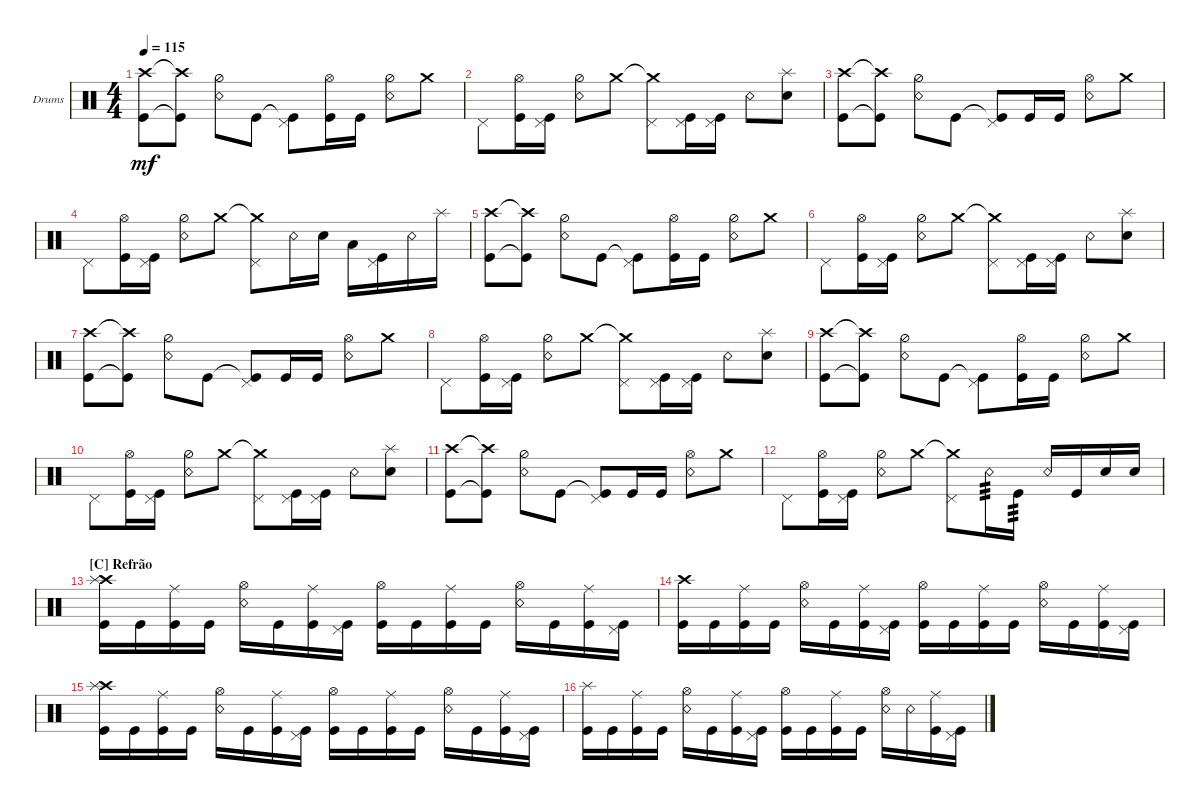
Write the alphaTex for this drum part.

\defaultSystemsLayout 4
\bracketExtendMode groupsimilarinstruments
\firstSystemTrackNameOrientation horizontal
\otherSystemsTrackNameOrientation horizontal
\track ("Drum" "Drums") {multiBarRest instrument percussion}
\staff {score}
\articulation defaults
\ts (4 4)
\tempo 115
\clef neutral
\ks c
("Kick (hit)" "Crash high (hit)").8{dy mf} ("Kick (hit)"{t} "Crash high (hit)"{t}).8 ("Snare (rim shot)" "Hi-Hat (half)").8 "Kick (hit)".8 ("Kick (hit)"{t} "Pedal Hi-Hat (hit)").8 ("Kick (hit)" "Hi-Hat (open)").16 "Kick (hit)".16 ("Snare (rim shot)" "Hi-Hat (half)").8 "Crash medium (hit)".8 |
"Pedal Hi-Hat (hit)".8 ("Kick (hit)" "Hi-Hat (open)").16 ("Kick (hit)" "Pedal Hi-Hat (hit)").16 ("Snare (rim shot)" "Hi-Hat (half)").8 "Crash medium (hit)".8 ("Crash medium (hit)"{t} "Pedal Hi-Hat (hit)").8 ("Kick (hit)" "Pedal Hi-Hat (hit)").16 ("Kick (hit)" "Pedal Hi-Hat (hit)").16 "Snare (rim shot)".8 ("Snare (hit) 2" "Splash (hit)").8 |
("Kick (hit)" "Crash high (hit)").8 ("Kick (hit)"{t} "Crash high (hit)"{t}).8 ("Snare (rim shot)" "Hi-Hat (half)").8 "Kick (hit)".8 ("Kick (hit)"{t} "Pedal Hi-Hat (hit)").8 "Kick (hit)".16 "Kick (hit)".16 ("Snare (rim shot)" "Hi-Hat (open)").8 "Crash medium (hit)".8 |
"Pedal Hi-Hat (hit)".8 ("Kick (hit)" "Hi-Hat (open)").16 ("Kick (hit)" "Pedal Hi-Hat (hit)").16 ("Snare (rim shot)" "Hi-Hat (half)").8 "Crash medium (hit)".8 ("Crash medium (hit)"{t} "Pedal Hi-Hat (hit)").8 "Snare (rim shot)".16 "Snare (hit) 2".16 "Low Tom (hit)".16 ("Kick (hit)" "Pedal Hi-Hat (hit)").16 "Snare (rim shot)".16 "Splash (hit)".16 |
("Kick (hit)" "Crash high (hit)").8 ("Kick (hit)"{t} "Crash high (hit)"{t}).8 ("Snare (rim shot)" "Hi-Hat (half)").8 "Kick (hit)".8 ("Kick (hit)"{t} "Pedal Hi-Hat (hit)").8 ("Kick (hit)" "Hi-Hat (open)").16 "Kick (hit)".16 ("Snare (rim shot)" "Hi-Hat (half)").8 "Crash medium (hit)".8 |
"Pedal Hi-Hat (hit)".8 ("Kick (hit)" "Hi-Hat (open)").16 ("Kick (hit)" "Pedal Hi-Hat (hit)").16 ("Snare (rim shot)" "Hi-Hat (half)").8 "Crash medium (hit)".8 ("Crash medium (hit)"{t} "Pedal Hi-Hat (hit)").8 ("Kick (hit)" "Pedal Hi-Hat (hit)").16 ("Kick (hit)" "Pedal Hi-Hat (hit)").16 "Snare (rim shot)".8 ("Snare (hit) 2" "Splash (hit)").8 |
("Kick (hit)" "Crash high (hit)").8 ("Kick (hit)"{t} "Crash high (hit)"{t}).8 ("Snare (rim shot)" "Hi-Hat (half)").8 "Kick (hit)".8 ("Kick (hit)"{t} "Pedal Hi-Hat (hit)").8 "Kick (hit)".16 "Kick (hit)".16 ("Snare (rim shot)" "Hi-Hat (open)").8 "Crash medium (hit)".8 |
"Pedal Hi-Hat (hit)".8 ("Kick (hit)" "Hi-Hat (open)").16 ("Kick (hit)" "Pedal Hi-Hat (hit)").16 ("Snare (rim shot)" "Hi-Hat (half)").8 "Crash medium (hit)".8 ("Crash medium (hit)"{t} "Pedal Hi-Hat (hit)").8 ("Kick (hit)" "Pedal Hi-Hat (hit)").16 ("Kick (hit)" "Pedal Hi-Hat (hit)").16 "Snare (rim shot)".8 ("Snare (hit) 2" "Splash (hit)").8 |
("Kick (hit)" "Crash high (hit)").8 ("Kick (hit)"{t} "Crash high (hit)"{t}).8 ("Snare (rim shot)" "Hi-Hat (half)").8 "Kick (hit)".8 ("Kick (hit)"{t} "Pedal Hi-Hat (hit)").8 ("Kick (hit)" "Hi-Hat (open)").16 "Kick (hit)".16 ("Snare (rim shot)" "Hi-Hat (half)").8 "Crash medium (hit)".8 |
"Pedal Hi-Hat (hit)".8 ("Kick (hit)" "Hi-Hat (open)").16 ("Kick (hit)" "Pedal Hi-Hat (hit)").16 ("Snare (rim shot)" "Hi-Hat (half)").8 "Crash medium (hit)".8 ("Crash medium (hit)"{t} "Pedal Hi-Hat (hit)").8 ("Kick (hit)" "Pedal Hi-Hat (hit)").16 ("Kick (hit)" "Pedal Hi-Hat (hit)").16 "Snare (rim shot)".8 ("Snare (hit) 2" "Splash (hit)").8 |
("Kick (hit)" "Crash high (hit)").8 ("Kick (hit)"{t} "Crash high (hit)"{t}).8 ("Snare (rim shot)" "Hi-Hat (half)").8 "Kick (hit)".8 ("Kick (hit)"{t} "Pedal Hi-Hat (hit)").8 "Kick (hit)".16 "Kick (hit)".16 ("Snare (rim shot)" "Hi-Hat (open)").8 "Crash medium (hit)".8 |
"Pedal Hi-Hat (hit)".8 ("Kick (hit)" "Hi-Hat (open)").16 ("Kick (hit)" "Pedal Hi-Hat (hit)").16 ("Snare (rim shot)" "Hi-Hat (half)").8 "Crash medium (hit)".8 ("Crash medium (hit)"{t} "Pedal Hi-Hat (hit)").8 "Snare (rim shot)".16{tp 3} "Kick (hit)".16{tp 3} "Snare (rim shot)".16 "Kick (hit)".16 "Snare (hit) 2".16 "Snare (hit) 2".16 |
\section ("C" "Refrão")
("Kick (hit)" "Crash high (hit)" "Splash (hit)").16 "Kick (hit)".16 ("Kick (hit)" "Ride (middle)").16 "Kick (hit)".16 ("Snare (rim shot)" "Hi-Hat (open)").16 "Kick (hit)".16 ("Kick (hit)" "Ride (middle)").16 ("Kick (hit)" "Pedal Hi-Hat (hit)").16 ("Kick (hit)" "Hi-Hat (open)").16 "Kick (hit)".16 ("Kick (hit)" "Ride (middle)").16 "Kick (hit)".16 ("Snare (rim shot)" "Hi-Hat (open)").16 "Kick (hit)".16 ("Kick (hit)" "Ride (middle)").16 ("Kick (hit)" "Pedal Hi-Hat (hit)").16 |
("Kick (hit)" "Crash high (hit)").16 "Kick (hit)".16 ("Kick (hit)" "Ride (middle)").16 "Kick (hit)".16 ("Snare (rim shot)" "Hi-Hat (open)").16 "Kick (hit)".16 ("Kick (hit)" "Ride (middle)").16 ("Kick (hit)" "Pedal Hi-Hat (hit)").16 ("Kick (hit)" "Hi-Hat (open)").16 "Kick (hit)".16 ("Kick (hit)" "Ride (middle)").16 "Kick (hit)".16 ("Snare (rim shot)" "Hi-Hat (open)").16 "Kick (hit)".16 ("Kick (hit)" "Ride (middle)").16 ("Kick (hit)" "Pedal Hi-Hat (hit)").16 |
("Kick (hit)" "Crash high (hit)" "Splash (hit)").16 "Kick (hit)".16 ("Kick (hit)" "Ride (middle)").16 "Kick (hit)".16 ("Snare (rim shot)" "Hi-Hat (open)").16 "Kick (hit)".16 ("Kick (hit)" "Ride (middle)").16 ("Kick (hit)" "Pedal Hi-Hat (hit)").16 ("Kick (hit)" "Hi-Hat (open)").16 "Kick (hit)".16 ("Kick (hit)" "Ride (middle)").16 "Kick (hit)".16 ("Snare (rim shot)" "Hi-Hat (open)").16 "Kick (hit)".16 ("Kick (hit)" "Ride (middle)").16 ("Kick (hit)" "Pedal Hi-Hat (hit)").16 |
("Kick (hit)" "Splash (hit)").16 "Kick (hit)".16 ("Kick (hit)" "Ride (middle)").16 "Kick (hit)".16 ("Snare (rim shot)" "Hi-Hat (open)").16 "Kick (hit)".16 ("Kick (hit)" "Ride (middle)").16 ("Kick (hit)" "Pedal Hi-Hat (hit)").16 ("Kick (hit)" "Hi-Hat (open)").16 "Kick (hit)".16 ("Kick (hit)" "Ride (middle)").16 "Kick (hit)".16 ("Snare (rim shot)" "Hi-Hat (open)").16 "Snare (rim shot)".16 ("Kick (hit)" "Ride (middle)").16 ("Kick (hit)" "Pedal Hi-Hat (hit)").16
